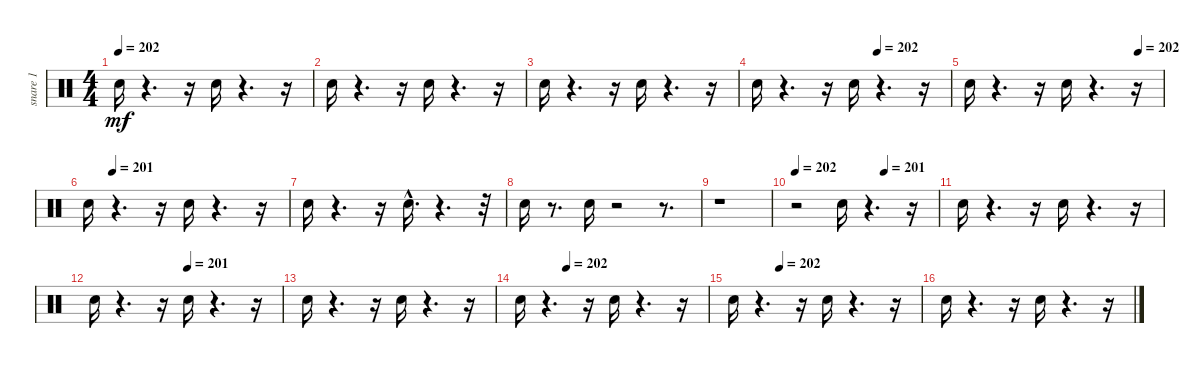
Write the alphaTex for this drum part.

\track ("snare 1" "snare 1") {instrument percussion}
\staff {score}
\articulation defaults
\ts (4 4)
\tempo 202
\clef neutral
\ks c "Snare (hit) 2".16{dy mf}
r.4{d} r.16 "Snare (hit) 2".16 r.4{d} r.16 |
"Snare (hit) 2".16 r.4{d} r.16 "Snare (hit) 2".16 r.4{d} r.16 |
"Snare (hit) 2".16 r.4{d} r.16 "Snare (hit) 2".16 r.4{d} r.16 |
\tempo (202 0.625)
"Snare (hit) 2".16 r.4{d} r.16 "Snare (hit) 2".16 r.4{d} r.16 |
\tempo (202 0.875)
"Snare (hit) 2".16 r.4{d} r.16 "Snare (hit) 2".16 r.4{d} r.16 |
\tempo (201 0.125)
"Snare (hit) 2".16 r.4{d} r.16 "Snare (hit) 2".16 r.4{d} r.16 |
"Snare (hit) 2".16 r.4{d} r.16 "Snare (hit) 2"{hac}.16{d} r.4{d} r.32 |
"Snare (hit) 2".16 r.8{d} "Snare (hit) 2".16 r.2 r.8{d} |
r.1 |
\tempo 202
\tempo (201 0.625)
r.2 "Snare (hit) 2".16 r.4{d} r.16 |
"Snare (hit) 2".16 r.4{d} r.16 "Snare (hit) 2".16 r.4{d} r.16 |
\tempo (201 0.5)
"Snare (hit) 2".16 r.4{d} r.16 "Snare (hit) 2".16 r.4{d} r.16 |
"Snare (hit) 2".16 r.4{d} r.16 "Snare (hit) 2".16 r.4{d} r.16 |
\tempo (202 0.25)
"Snare (hit) 2".16 r.4{d} r.16 "Snare (hit) 2".16 r.4{d} r.16 |
\tempo (202 0.25)
"Snare (hit) 2".16 r.4{d} r.16 "Snare (hit) 2".16 r.4{d} r.16 |
"Snare (hit) 2".16 r.4{d} r.16 "Snare (hit) 2".16 r.4{d} r.16
